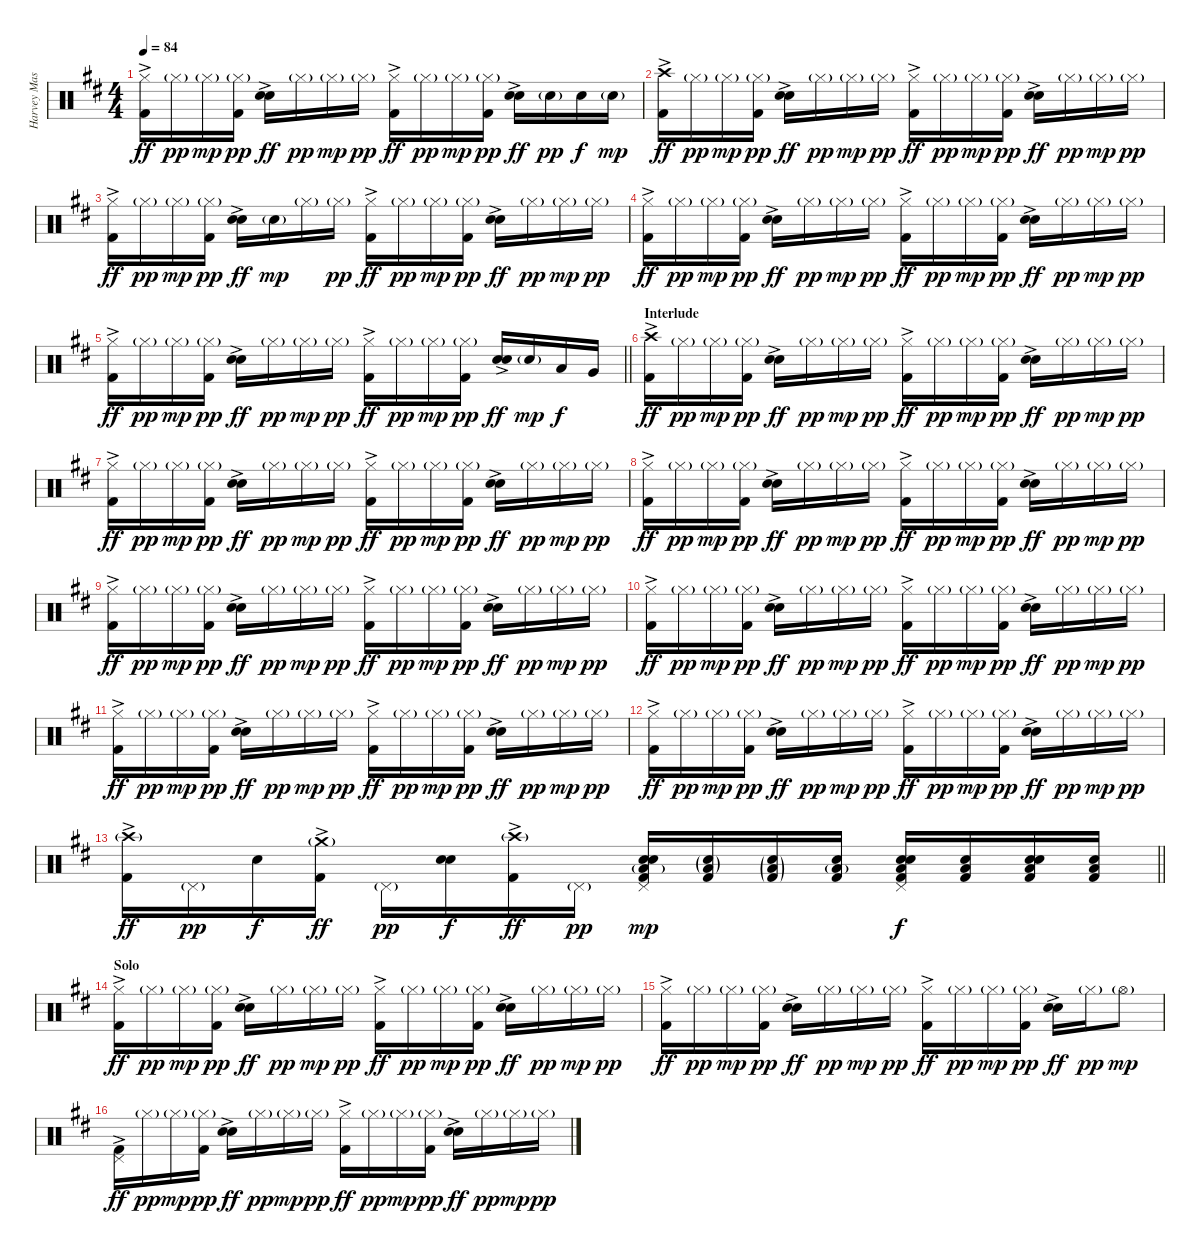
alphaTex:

\track ("Harvey Mason" "Harvey Mas") {instrument percussion}
\staff {score}
\articulation defaults
\ts (4 4)
\tempo 84
\clef neutral
\ks d
("Hi-Hat (closed)" "Kick (hit) 2"{ac}).16{dy ff} "Hi-Hat (closed)"{g}.16{dy pp} "Hi-Hat (closed)"{g}.16{dy mp} ("Hi-Hat (closed)"{g} "Kick (hit) 2").16{dy pp} ("Electric Snare (hit)"{ac} "Snare (hit) 2").16{dy ff} "Hi-Hat (closed)"{g}.16{dy pp} "Hi-Hat (closed)"{g}.16{dy mp} "Hi-Hat (closed)"{g}.16{dy pp} ("Hi-Hat (closed)" "Kick (hit) 2"{ac}).16{dy ff} "Hi-Hat (closed)"{g}.16{dy pp} "Hi-Hat (closed)"{g}.16{dy mp} ("Hi-Hat (closed)"{g} "Kick (hit) 2").16{dy pp} ("Electric Snare (hit)"{ac} "Snare (hit) 2").16{dy ff} "Snare (hit) 2"{g}.16{dy pp} "Snare (hit) 2".16{dy f} "Snare (hit) 2"{g}.16{dy mp} |
("Crash high (hit)" "Kick (hit) 2"{ac}).16{dy ff} "Hi-Hat (closed)"{g}.16{dy pp} "Hi-Hat (closed)"{g}.16{dy mp} ("Hi-Hat (closed)"{g} "Kick (hit) 2").16{dy pp} ("Electric Snare (hit)"{ac} "Snare (hit) 2").16{dy ff} "Hi-Hat (closed)"{g}.16{dy pp} "Hi-Hat (closed)"{g}.16{dy mp} "Hi-Hat (closed)"{g}.16{dy pp} ("Hi-Hat (closed)" "Kick (hit) 2"{ac}).16{dy ff} "Hi-Hat (closed)"{g}.16{dy pp} "Hi-Hat (closed)"{g}.16{dy mp} ("Hi-Hat (closed)"{g} "Kick (hit) 2").16{dy pp} ("Electric Snare (hit)"{ac} "Snare (hit) 2").16{dy ff} "Hi-Hat (closed)"{g}.16{dy pp} "Hi-Hat (closed)"{g}.16{dy mp} "Hi-Hat (closed)"{g}.16{dy pp} |
("Hi-Hat (closed)" "Kick (hit) 2"{ac}).16{dy ff} "Hi-Hat (closed)"{g}.16{dy pp} "Hi-Hat (closed)"{g}.16{dy mp} ("Hi-Hat (closed)"{g} "Kick (hit) 2").16{dy pp} ("Electric Snare (hit)"{ac} "Snare (hit) 2").16{dy ff} "Snare (hit) 2"{g}.16{dy mp} "Hi-Hat (closed)"{g}.16 "Hi-Hat (closed)"{g}.16{dy pp} ("Hi-Hat (closed)" "Kick (hit) 2"{ac}).16{dy ff} "Hi-Hat (closed)"{g}.16{dy pp} "Hi-Hat (closed)"{g}.16{dy mp} ("Hi-Hat (closed)"{g} "Kick (hit) 2").16{dy pp} ("Electric Snare (hit)"{ac} "Snare (hit) 2").16{dy ff} "Hi-Hat (closed)"{g}.16{dy pp} "Hi-Hat (closed)"{g}.16{dy mp} "Hi-Hat (closed)"{g}.16{dy pp} |
("Hi-Hat (closed)" "Kick (hit) 2"{ac}).16{dy ff} "Hi-Hat (closed)"{g}.16{dy pp} "Hi-Hat (closed)"{g}.16{dy mp} ("Hi-Hat (closed)"{g} "Kick (hit) 2").16{dy pp} ("Electric Snare (hit)"{ac} "Snare (hit) 2").16{dy ff} "Hi-Hat (closed)"{g}.16{dy pp} "Hi-Hat (closed)"{g}.16{dy mp} "Hi-Hat (closed)"{g}.16{dy pp} ("Hi-Hat (closed)" "Kick (hit) 2"{ac}).16{dy ff} "Hi-Hat (closed)"{g}.16{dy pp} "Hi-Hat (closed)"{g}.16{dy mp} ("Hi-Hat (closed)"{g} "Kick (hit) 2").16{dy pp} ("Electric Snare (hit)"{ac} "Snare (hit) 2").16{dy ff} "Hi-Hat (closed)"{g}.16{dy pp} "Hi-Hat (closed)"{g}.16{dy mp} "Hi-Hat (closed)"{g}.16{dy pp} |
\barLineRight lightlight
("Hi-Hat (closed)" "Kick (hit) 2"{ac}).16{dy ff} "Hi-Hat (closed)"{g}.16{dy pp} "Hi-Hat (closed)"{g}.16{dy mp} ("Hi-Hat (closed)"{g} "Kick (hit) 2").16{dy pp} ("Electric Snare (hit)"{ac} "Snare (hit) 2").16{dy ff} "Hi-Hat (closed)"{g}.16{dy pp} "Hi-Hat (closed)"{g}.16{dy mp} "Hi-Hat (closed)"{g}.16{dy pp} ("Hi-Hat (closed)" "Kick (hit) 2"{ac}).16{dy ff} "Hi-Hat (closed)"{g}.16{dy pp} "Hi-Hat (closed)"{g}.16{dy mp} ("Hi-Hat (closed)"{g} "Kick (hit) 2").16{dy pp} ("Electric Snare (hit)"{ac} "Snare (hit) 2").16{dy ff} "Snare (hit) 2"{g}.16{dy mp} "Low Tom (hit)".16{dy f} "Very Low Tom (hit)".16 |
\section ("" "Interlude")
("Crash high (hit)" "Kick (hit) 2"{ac}).16{dy ff} "Hi-Hat (closed)"{g}.16{dy pp} "Hi-Hat (closed)"{g}.16{dy mp} ("Hi-Hat (closed)"{g} "Kick (hit) 2").16{dy pp} ("Electric Snare (hit)"{ac} "Snare (hit) 2").16{dy ff} "Hi-Hat (closed)"{g}.16{dy pp} "Hi-Hat (closed)"{g}.16{dy mp} "Hi-Hat (closed)"{g}.16{dy pp} ("Hi-Hat (closed)" "Kick (hit) 2"{ac}).16{dy ff} "Hi-Hat (closed)"{g}.16{dy pp} "Hi-Hat (closed)"{g}.16{dy mp} ("Hi-Hat (closed)"{g} "Kick (hit) 2").16{dy pp} ("Electric Snare (hit)"{ac} "Snare (hit) 2").16{dy ff} "Hi-Hat (closed)"{g}.16{dy pp} "Hi-Hat (closed)"{g}.16{dy mp} "Hi-Hat (closed)"{g}.16{dy pp} |
("Hi-Hat (closed)" "Kick (hit) 2"{ac}).16{dy ff} "Hi-Hat (closed)"{g}.16{dy pp} "Hi-Hat (closed)"{g}.16{dy mp} ("Hi-Hat (closed)"{g} "Kick (hit) 2").16{dy pp} ("Electric Snare (hit)"{ac} "Snare (hit) 2").16{dy ff} "Hi-Hat (closed)"{g}.16{dy pp} "Hi-Hat (closed)"{g}.16{dy mp} "Hi-Hat (closed)"{g}.16{dy pp} ("Hi-Hat (closed)" "Kick (hit) 2"{ac}).16{dy ff} "Hi-Hat (closed)"{g}.16{dy pp} "Hi-Hat (closed)"{g}.16{dy mp} ("Hi-Hat (closed)"{g} "Kick (hit) 2").16{dy pp} ("Electric Snare (hit)"{ac} "Snare (hit) 2").16{dy ff} "Hi-Hat (closed)"{g}.16{dy pp} "Hi-Hat (closed)"{g}.16{dy mp} "Hi-Hat (closed)"{g}.16{dy pp} |
("Hi-Hat (closed)" "Kick (hit) 2"{ac}).16{dy ff} "Hi-Hat (closed)"{g}.16{dy pp} "Hi-Hat (closed)"{g}.16{dy mp} ("Hi-Hat (closed)"{g} "Kick (hit) 2").16{dy pp} ("Electric Snare (hit)"{ac} "Snare (hit) 2").16{dy ff} "Hi-Hat (closed)"{g}.16{dy pp} "Hi-Hat (closed)"{g}.16{dy mp} "Hi-Hat (closed)"{g}.16{dy pp} ("Hi-Hat (closed)" "Kick (hit) 2"{ac}).16{dy ff} "Hi-Hat (closed)"{g}.16{dy pp} "Hi-Hat (closed)"{g}.16{dy mp} ("Hi-Hat (closed)"{g} "Kick (hit) 2").16{dy pp} ("Electric Snare (hit)"{ac} "Snare (hit) 2").16{dy ff} "Hi-Hat (closed)"{g}.16{dy pp} "Hi-Hat (closed)"{g}.16{dy mp} "Hi-Hat (closed)"{g}.16{dy pp} |
("Hi-Hat (closed)" "Kick (hit) 2"{ac}).16{dy ff} "Hi-Hat (closed)"{g}.16{dy pp} "Hi-Hat (closed)"{g}.16{dy mp} ("Hi-Hat (closed)"{g} "Kick (hit) 2").16{dy pp} ("Electric Snare (hit)"{ac} "Snare (hit) 2").16{dy ff} "Hi-Hat (closed)"{g}.16{dy pp} "Hi-Hat (closed)"{g}.16{dy mp} "Hi-Hat (closed)"{g}.16{dy pp} ("Hi-Hat (closed)" "Kick (hit) 2"{ac}).16{dy ff} "Hi-Hat (closed)"{g}.16{dy pp} "Hi-Hat (closed)"{g}.16{dy mp} ("Hi-Hat (closed)"{g} "Kick (hit) 2").16{dy pp} ("Electric Snare (hit)"{ac} "Snare (hit) 2").16{dy ff} "Hi-Hat (closed)"{g}.16{dy pp} "Hi-Hat (closed)"{g}.16{dy mp} "Hi-Hat (closed)"{g}.16{dy pp} |
("Hi-Hat (closed)" "Kick (hit) 2"{ac}).16{dy ff} "Hi-Hat (closed)"{g}.16{dy pp} "Hi-Hat (closed)"{g}.16{dy mp} ("Hi-Hat (closed)"{g} "Kick (hit) 2").16{dy pp} ("Electric Snare (hit)"{ac} "Snare (hit) 2").16{dy ff} "Hi-Hat (closed)"{g}.16{dy pp} "Hi-Hat (closed)"{g}.16{dy mp} "Hi-Hat (closed)"{g}.16{dy pp} ("Hi-Hat (closed)" "Kick (hit) 2"{ac}).16{dy ff} "Hi-Hat (closed)"{g}.16{dy pp} "Hi-Hat (closed)"{g}.16{dy mp} ("Hi-Hat (closed)"{g} "Kick (hit) 2").16{dy pp} ("Electric Snare (hit)"{ac} "Snare (hit) 2").16{dy ff} "Hi-Hat (closed)"{g}.16{dy pp} "Hi-Hat (closed)"{g}.16{dy mp} "Hi-Hat (closed)"{g}.16{dy pp} |
("Hi-Hat (closed)" "Kick (hit) 2"{ac}).16{dy ff} "Hi-Hat (closed)"{g}.16{dy pp} "Hi-Hat (closed)"{g}.16{dy mp} ("Hi-Hat (closed)"{g} "Kick (hit) 2").16{dy pp} ("Electric Snare (hit)"{ac} "Snare (hit) 2").16{dy ff} "Hi-Hat (closed)"{g}.16{dy pp} "Hi-Hat (closed)"{g}.16{dy mp} "Hi-Hat (closed)"{g}.16{dy pp} ("Hi-Hat (closed)" "Kick (hit) 2"{ac}).16{dy ff} "Hi-Hat (closed)"{g}.16{dy pp} "Hi-Hat (closed)"{g}.16{dy mp} ("Hi-Hat (closed)"{g} "Kick (hit) 2").16{dy pp} ("Electric Snare (hit)"{ac} "Snare (hit) 2").16{dy ff} "Hi-Hat (closed)"{g}.16{dy pp} "Hi-Hat (closed)"{g}.16{dy mp} "Hi-Hat (closed)"{g}.16{dy pp} |
("Hi-Hat (closed)" "Kick (hit) 2"{ac}).16{dy ff} "Hi-Hat (closed)"{g}.16{dy pp} "Hi-Hat (closed)"{g}.16{dy mp} ("Hi-Hat (closed)"{g} "Kick (hit) 2").16{dy pp} ("Electric Snare (hit)"{ac} "Snare (hit) 2").16{dy ff} "Hi-Hat (closed)"{g}.16{dy pp} "Hi-Hat (closed)"{g}.16{dy mp} "Hi-Hat (closed)"{g}.16{dy pp} ("Hi-Hat (closed)" "Kick (hit) 2"{ac}).16{dy ff} "Hi-Hat (closed)"{g}.16{dy pp} "Hi-Hat (closed)"{g}.16{dy mp} ("Hi-Hat (closed)"{g} "Kick (hit) 2").16{dy pp} ("Electric Snare (hit)"{ac} "Snare (hit) 2").16{dy ff} "Hi-Hat (closed)"{g}.16{dy pp} "Hi-Hat (closed)"{g}.16{dy mp} "Hi-Hat (closed)"{g}.16{dy pp} |
\barLineRight lightlight
("Crash high (hit)"{g} "Kick (hit) 2"{ac}).16{dy ff} "Pedal Hi-Hat (hit)"{g}.16{dy pp} "Snare (hit) 2".16{dy f} ("Crash medium (hit)"{g} "Kick (hit) 2"{ac}).16{dy ff} "Pedal Hi-Hat (hit)"{g}.16{dy pp} ("Electric Snare (hit)" "Snare (hit) 2").16{dy f} ("Crash high (hit)"{g} "Kick (hit) 2"{ac}).16{dy ff} "Pedal Hi-Hat (hit)"{g}.16{dy pp} ("Pedal Hi-Hat (hit)" "Low Floor Tom (hit)"{g} "Electric Snare (hit)" "Snare (hit) 2" "Kick (hit) 2").16{dy mp} ("Low Floor Tom (hit)"{g} "Snare (hit) 2"{g} "Kick (hit) 2").16 ("Low Floor Tom (hit)"{g} "Snare (hit) 2"{g} "Kick (hit) 2"{g}).16 ("Low Floor Tom (hit)"{g} "Snare (hit) 2" "Kick (hit) 2").16 ("Pedal Hi-Hat (hit)" "Low Floor Tom (hit)" "Electric Snare (hit)" "Snare (hit) 2" "Kick (hit) 2").16{dy f} ("Low Floor Tom (hit)" "Snare (hit) 2" "Kick (hit) 2").16 ("Low Floor Tom (hit)" "Electric Snare (hit)" "Snare (hit) 2" "Kick (hit) 2").16 ("Low Floor Tom (hit)" "Snare (hit) 2" "Kick (hit) 2").16 |
\section ("" "Solo")
("Hi-Hat (closed)" "Kick (hit) 2"{ac}).16{dy ff} "Hi-Hat (closed)"{g}.16{dy pp} "Hi-Hat (closed)"{g}.16{dy mp} ("Hi-Hat (closed)"{g} "Kick (hit) 2").16{dy pp} ("Electric Snare (hit)"{ac} "Snare (hit) 2").16{dy ff} "Hi-Hat (closed)"{g}.16{dy pp} "Hi-Hat (closed)"{g}.16{dy mp} "Hi-Hat (closed)"{g}.16{dy pp} ("Hi-Hat (closed)" "Kick (hit) 2"{ac}).16{dy ff} "Hi-Hat (closed)"{g}.16{dy pp} "Hi-Hat (closed)"{g}.16{dy mp} ("Hi-Hat (closed)"{g} "Kick (hit) 2").16{dy pp} ("Electric Snare (hit)"{ac} "Snare (hit) 2").16{dy ff} "Hi-Hat (closed)"{g}.16{dy pp} "Hi-Hat (closed)"{g}.16{dy mp} "Hi-Hat (closed)"{g}.16{dy pp} |
("Hi-Hat (closed)" "Kick (hit) 2"{ac}).16{dy ff} "Hi-Hat (closed)"{g}.16{dy pp} "Hi-Hat (closed)"{g}.16{dy mp} ("Hi-Hat (closed)"{g} "Kick (hit) 2").16{dy pp} ("Electric Snare (hit)"{ac} "Snare (hit) 2").16{dy ff} "Hi-Hat (closed)"{g}.16{dy pp} "Hi-Hat (closed)"{g}.16{dy mp} "Hi-Hat (closed)"{g}.16{dy pp} ("Hi-Hat (closed)" "Kick (hit) 2"{ac}).16{dy ff} "Hi-Hat (closed)"{g}.16{dy pp} "Hi-Hat (closed)"{g}.16{dy mp} ("Hi-Hat (closed)"{g} "Kick (hit) 2").16{dy pp} ("Electric Snare (hit)"{ac} "Snare (hit) 2").16{dy ff} "Hi-Hat (closed)"{g}.16{dy pp} "Hi-Hat (open)"{g}.8{dy mp} |
("Pedal Hi-Hat (hit)" "Kick (hit) 2"{ac}).16{dy ff} "Hi-Hat (closed)"{g}.16{dy pp} "Hi-Hat (closed)"{g}.16{dy mp} ("Hi-Hat (closed)"{g} "Kick (hit) 2").16{dy pp} ("Electric Snare (hit)"{ac} "Snare (hit) 2").16{dy ff} "Hi-Hat (closed)"{g}.16{dy pp} "Hi-Hat (closed)"{g}.16{dy mp} "Hi-Hat (closed)"{g}.16{dy pp} ("Hi-Hat (closed)" "Kick (hit) 2"{ac}).16{dy ff} "Hi-Hat (closed)"{g}.16{dy pp} "Hi-Hat (closed)"{g}.16{dy mp} ("Hi-Hat (closed)"{g} "Kick (hit) 2").16{dy pp} ("Electric Snare (hit)"{ac} "Snare (hit) 2").16{dy ff} "Hi-Hat (closed)"{g}.16{dy pp} "Hi-Hat (closed)"{g}.16{dy mp} "Hi-Hat (closed)"{g}.16{dy pp}
